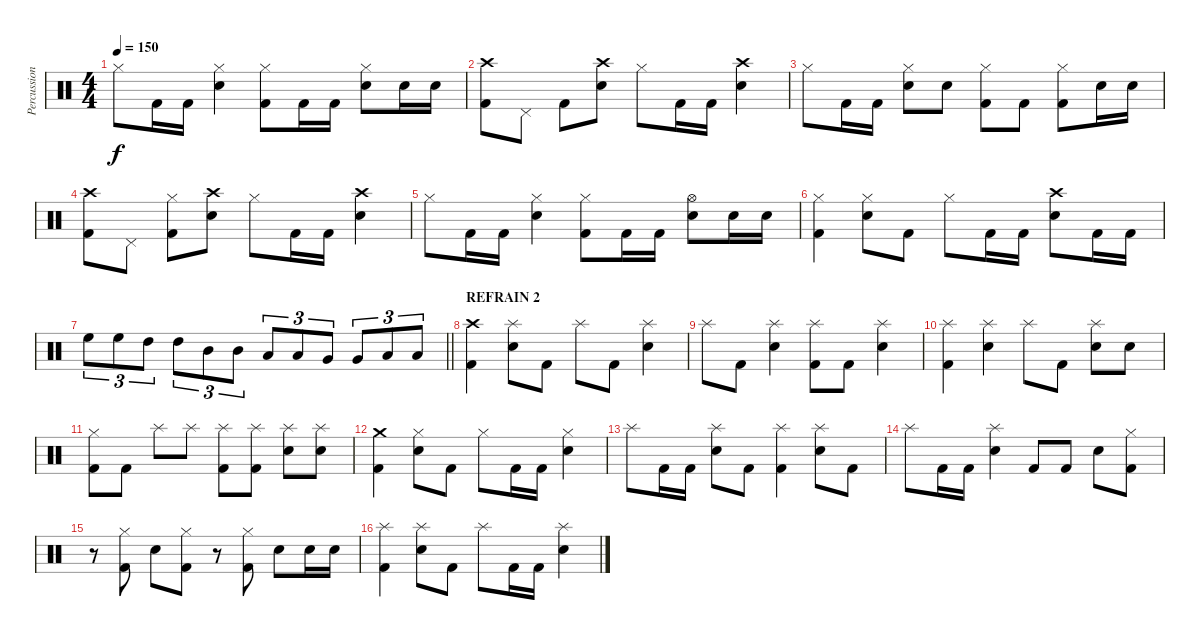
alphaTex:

\track ("Percussion" "Percussion") {instrument percussion}
\staff {score}
\articulation defaults
\ts (4 4)
\tempo 150
\clef neutral
\ks c "Hi-Hat (closed)".8{dy f} "Kick (hit) 2".16 "Kick (hit) 2".16
("Electric Snare (hit)" "Hi-Hat (closed)").4 ("Kick (hit) 2" "Hi-Hat (closed)").8 "Kick (hit) 2".16 "Kick (hit) 2".16 ("Electric Snare (hit)" "Hi-Hat (closed)").8 "Electric Snare (hit)".16 "Electric Snare (hit)".16 |
("Kick (hit) 2" "Crash high (hit)").8 "Pedal Hi-Hat (hit)".8 "Kick (hit) 2".8 ("Electric Snare (hit)" "Crash high (hit)").8 "Hi-Hat (closed)".8 "Kick (hit) 2".16 "Kick (hit) 2".16 ("Electric Snare (hit)" "Crash high (hit)").4 |
"Hi-Hat (closed)".8 "Kick (hit) 2".16 "Kick (hit) 2".16 ("Electric Snare (hit)" "Hi-Hat (closed)").8 "Electric Snare (hit)".8 ("Kick (hit) 2" "Hi-Hat (closed)").8 "Kick (hit) 2".8 ("Kick (hit) 2" "Hi-Hat (closed)").8 "Electric Snare (hit)".16 "Electric Snare (hit)".16 |
("Kick (hit) 2" "Crash high (hit)").8 "Pedal Hi-Hat (hit)".8 ("Kick (hit) 2" "Hi-Hat (closed)").8 ("Electric Snare (hit)" "Crash high (hit)").8 "Hi-Hat (closed)".8 "Kick (hit) 2".16 "Kick (hit) 2".16 ("Electric Snare (hit)" "Crash high (hit)").4 |
"Hi-Hat (closed)".8 "Kick (hit) 2".16 "Kick (hit) 2".16 ("Electric Snare (hit)" "Hi-Hat (closed)").4 ("Kick (hit) 2" "Hi-Hat (closed)").8 "Kick (hit) 2".16 "Kick (hit) 2".16 ("Electric Snare (hit)" "Hi-Hat (open)").8 "Electric Snare (hit)".16 "Electric Snare (hit)".16 |
("Kick (hit) 2" "Hi-Hat (closed)").4 ("Electric Snare (hit)" "Hi-Hat (closed)").8 "Kick (hit) 2".8 "Hi-Hat (closed)".8 "Kick (hit) 2".16 "Kick (hit) 2".16 ("Electric Snare (hit)" "Crash high (hit)").8 "Kick (hit) 2".16 "Kick (hit) 2".16 |
\barLineRight lightlight "High Floor Tom (hit)".8{tu (3 2)} "High Floor Tom (hit)".8{tu (3 2)} "High Tom (hit)".8{tu (3 2)} "High Tom (hit)".8{tu (3 2)} "Mid Tom (hit)".8{tu (3 2)} "Mid Tom (hit)".8{tu (3 2)} "Low Tom (hit)".8{tu (3 2)} "Low Tom (hit)".8{tu (3 2)} "Very Low Tom (hit)".8{tu (3 2)} "Very Low Tom (hit)".8{tu (3 2)} "Low Floor Tom (hit)".8{tu (3 2)} "Low Floor Tom (hit)".8{tu (3 2)}
|
\section ("" "REFRAIN 2")
("Kick (hit) 2" "Crash high (hit)").4 ("Electric Snare (hit)" "Splash (hit)").8 "Kick (hit) 2".8 "Splash (hit)".8 "Kick (hit) 2".8 ("Electric Snare (hit)" "Splash (hit)").4 |
"Splash (hit)".8 "Kick (hit) 2".8 ("Electric Snare (hit)" "Splash (hit)").4 ("Kick (hit) 2" "Splash (hit)").8 "Kick (hit) 2".8 ("Electric Snare (hit)" "Splash (hit)").4 |
("Kick (hit) 2" "Splash (hit)").4 ("Electric Snare (hit)" "Splash (hit)").4 "Splash (hit)".8 "Kick (hit) 2".8 ("Electric Snare (hit)" "Splash (hit)").8 "Electric Snare (hit)".8 |
("Kick (hit) 2" "Hi-Hat (closed)").8 "Kick (hit) 2".8 "Splash (hit)".8 "Splash (hit)".8 ("Kick (hit) 2" "Splash (hit)").8 ("Kick (hit) 2" "Splash (hit)").8 ("Electric Snare (hit)" "Splash (hit)").8 ("Electric Snare (hit)" "Splash (hit)").8 |
("Kick (hit) 2" "Crash medium (hit)").4 ("Electric Snare (hit)" "Hi-Hat (closed)").8 "Kick (hit) 2".8 "Hi-Hat (closed)".8 "Kick (hit) 2".16 "Kick (hit) 2".16 ("Electric Snare (hit)" "Hi-Hat (closed)").4 |
"Splash (hit)".8 "Kick (hit) 2".16 "Kick (hit) 2".16 ("Electric Snare (hit)" "Splash (hit)").8 "Kick (hit) 2".8 ("Kick (hit) 2" "Splash (hit)").4 ("Electric Snare (hit)" "Splash (hit)").8 "Kick (hit) 2".8 |
"Splash (hit)".8 "Kick (hit) 2".16 "Kick (hit) 2".16 ("Electric Snare (hit)" "Splash (hit)").4 "Kick (hit) 2".8 "Kick (hit) 2".8 "Electric Snare (hit)".8 ("Kick (hit) 2" "Hi-Hat (closed)").8 |
r.8 ("Kick (hit) 2" "Hi-Hat (closed)").8 "Electric Snare (hit)".8 ("Kick (hit) 2" "Hi-Hat (closed)").8 r.8 ("Kick (hit) 2" "Hi-Hat (closed)").8 "Electric Snare (hit)".8 "Electric Snare (hit)".16 "Electric Snare (hit)".16 |
("Kick (hit) 2" "Splash (hit)").4 ("Electric Snare (hit)" "Splash (hit)").8 "Kick (hit) 2".8 "Splash (hit)".8 "Kick (hit) 2".16 "Kick (hit) 2".16 ("Electric Snare (hit)" "Splash (hit)").4
